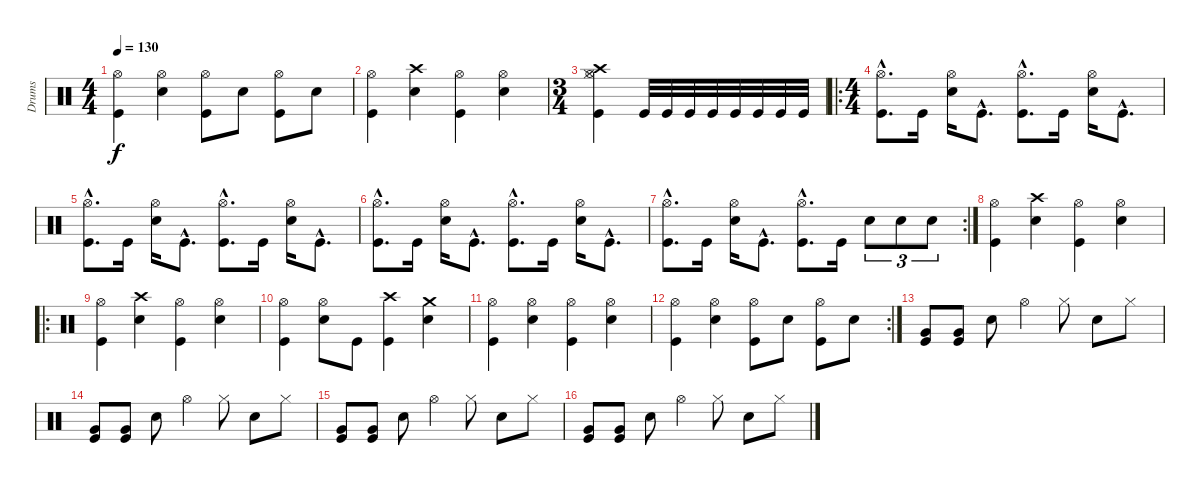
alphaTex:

\track ("Drums" "Drums") {instrument percussion}
\staff {score}
\articulation defaults
\ts (4 4)
\tempo 130
\clef neutral
\ks c
("Hi-Hat (open)" "Kick (hit)").4{dy f} ("Hi-Hat (open)" "Snare (hit) 2").4 ("Hi-Hat (open)" "Kick (hit)").8 "Snare (hit) 2".8 ("Hi-Hat (open)" "Kick (hit)").8 "Snare (hit) 2".8 |
("Hi-Hat (open)" "Kick (hit)").4 ("Crash high (hit)" "Snare (hit) 2").4 ("Hi-Hat (open)" "Kick (hit)").4 ("Hi-Hat (open)" "Snare (hit) 2").4 |
\ts (3 4)
("Crash high (hit)" "Hi-Hat (open)" "Hi-Hat (closed)" "Kick (hit)").4 "Kick (hit)".32 "Kick (hit)".32 "Kick (hit)".32 "Kick (hit)".32 "Kick (hit)".32 "Kick (hit)".32 "Kick (hit)".32 "Kick (hit)".32 |
\ro
\ts (4 4)
("Hi-Hat (open)"{hac} "Kick (hit)"{hac}).8{d} "Kick (hit)".16 ("Hi-Hat (open)" "Snare (hit) 2").16 "Kick (hit)"{hac}.8{d} ("Hi-Hat (open)"{hac} "Kick (hit)"{hac}).8{d} "Kick (hit)".16 ("Hi-Hat (open)" "Snare (hit) 2").16 "Kick (hit)"{hac}.8{d} |
("Hi-Hat (open)"{hac} "Kick (hit)"{hac}).8{d} "Kick (hit)".16 ("Hi-Hat (open)" "Snare (hit) 2").16 "Kick (hit)"{hac}.8{d} ("Hi-Hat (open)"{hac} "Kick (hit)"{hac}).8{d} "Kick (hit)".16 ("Hi-Hat (open)" "Snare (hit) 2").16 "Kick (hit)"{hac}.8{d} |
("Hi-Hat (open)"{hac} "Kick (hit)"{hac}).8{d} "Kick (hit)".16 ("Hi-Hat (open)" "Snare (hit) 2").16 "Kick (hit)"{hac}.8{d} ("Hi-Hat (open)"{hac} "Kick (hit)"{hac}).8{d} "Kick (hit)".16 ("Hi-Hat (open)" "Snare (hit) 2").16 "Kick (hit)"{hac}.8{d} |
\rc 2
("Hi-Hat (open)"{hac} "Kick (hit)"{hac}).8{d} "Kick (hit)".16 ("Hi-Hat (open)" "Snare (hit) 2").16 "Kick (hit)"{hac}.8{d} ("Hi-Hat (open)"{hac} "Kick (hit)"{hac}).8{d} "Kick (hit)".16 "Snare (hit) 2".8{tu (3 2)} "Snare (hit) 2".8{tu (3 2)} "Snare (hit) 2".8{tu (3 2)} |
("Hi-Hat (open)" "Kick (hit)").4 ("Crash high (hit)" "Snare (hit) 2").4 ("Hi-Hat (open)" "Kick (hit)").4 ("Hi-Hat (open)" "Snare (hit) 2").4 |
\ro
("Hi-Hat (open)" "Kick (hit)").4 ("Crash high (hit)" "Snare (hit) 2").4 ("Hi-Hat (open)" "Kick (hit)").4 ("Hi-Hat (open)" "Snare (hit) 2").4 |
("Hi-Hat (open)" "Kick (hit)").4 ("Hi-Hat (open)" "Snare (hit) 2").8 "Kick (hit)".8 ("Crash high (hit)" "Kick (hit)").4 ("Crash medium (hit)" "Snare (hit) 2").4 |
("Hi-Hat (open)" "Kick (hit)").4 ("Hi-Hat (open)" "Snare (hit) 2").4 ("Hi-Hat (open)" "Kick (hit)").4 ("Hi-Hat (open)" "Snare (hit) 2").4 |
\rc 2
("Hi-Hat (open)" "Kick (hit)").4 ("Hi-Hat (open)" "Snare (hit) 2").4 ("Hi-Hat (open)" "Kick (hit)").8 "Snare (hit) 2".8 ("Hi-Hat (open)" "Kick (hit)").8 "Snare (hit) 2".8 |
("Very Low Tom (hit)" "Kick (hit)").8 ("Very Low Tom (hit)" "Kick (hit)").8 "Snare (hit) 2".8 "Hi-Hat (open)".4 "Hi-Hat (closed)".8 "Snare (hit) 2".8 "Hi-Hat (closed)".8 |
("Very Low Tom (hit)" "Kick (hit)").8 ("Very Low Tom (hit)" "Kick (hit)").8 "Snare (hit) 2".8 "Hi-Hat (open)".4 "Hi-Hat (closed)".8 "Snare (hit) 2".8 "Hi-Hat (closed)".8 |
("Very Low Tom (hit)" "Kick (hit)").8 ("Very Low Tom (hit)" "Kick (hit)").8 "Snare (hit) 2".8 "Hi-Hat (open)".4 "Hi-Hat (closed)".8 "Snare (hit) 2".8 "Hi-Hat (closed)".8 |
("Very Low Tom (hit)" "Kick (hit)").8 ("Very Low Tom (hit)" "Kick (hit)").8 "Snare (hit) 2".8 "Hi-Hat (open)".4 "Hi-Hat (closed)".8 "Snare (hit) 2".8 "Hi-Hat (closed)".8
